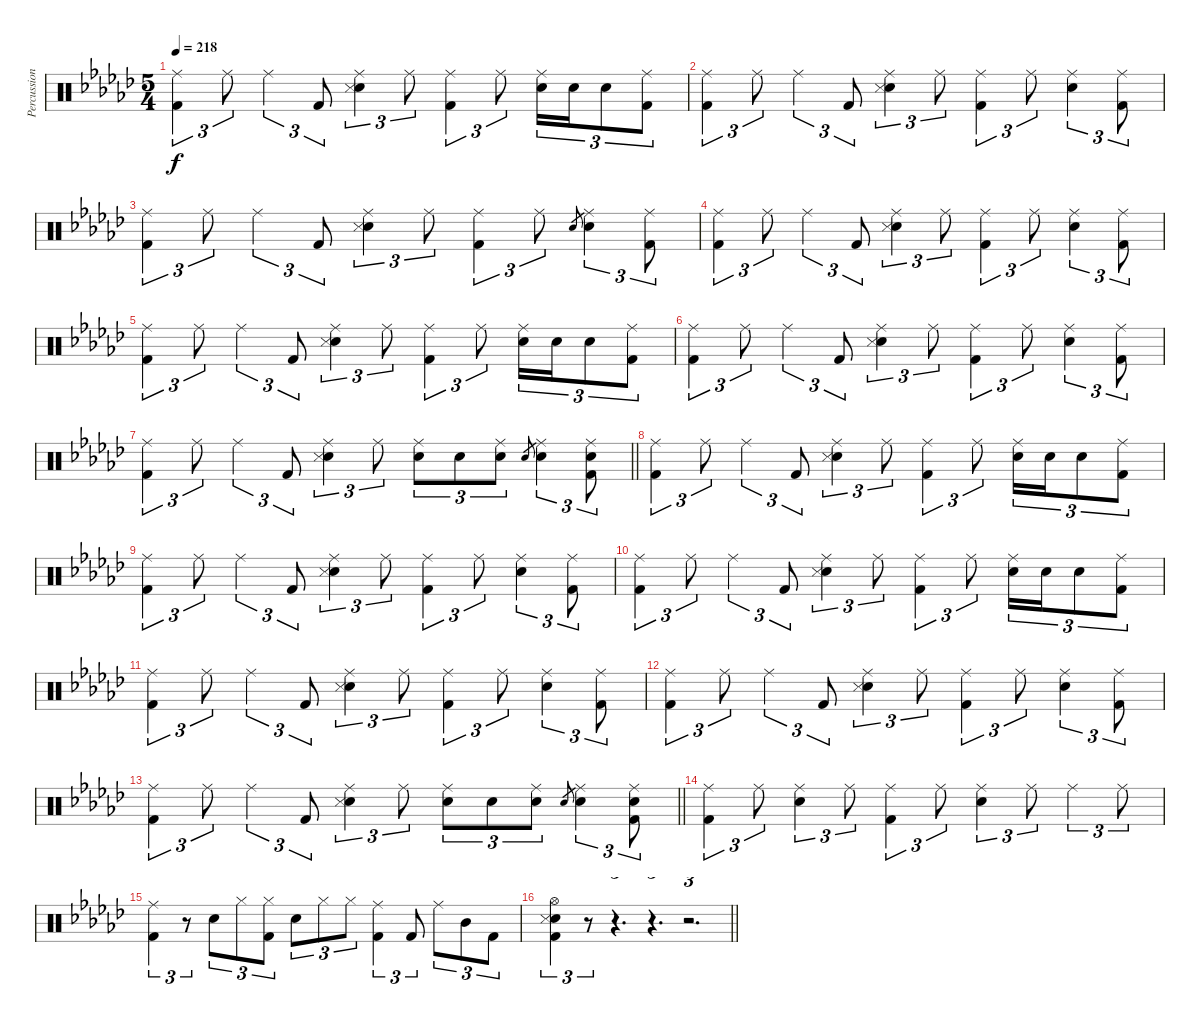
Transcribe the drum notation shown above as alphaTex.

\track ("Percussions" "Percussion") {instrument percussion}
\staff {score}
\articulation defaults
\ts (5 4)
\tempo 218
\clef neutral
\ks ebminor
("Ride (middle)" "Kick (hit) 2").4{tu (3 2) dy f} "Ride (middle)".8{tu (3 2)} "Ride (middle)".4{tu (3 2)} "Kick (hit) 2".8{tu (3 2)} ("Ride (middle)" "Snare (hit) 2" "Snare (side stick) 3").4{tu (3 2)} "Ride (middle)".8{tu (3 2)} ("Ride (middle)" "Kick (hit) 2").4{tu (3 2)} "Ride (middle)".8{tu (3 2)} ("Ride (middle)" "Snare (hit) 2").16{tu (3 2)} "Snare (hit) 2".16{tu (3 2)} "Snare (hit) 2".8{tu (3 2)} ("Ride (middle)" "Kick (hit) 2").8{tu (3 2)} |
("Ride (middle)" "Kick (hit) 2").4{tu (3 2)} "Ride (middle)".8{tu (3 2)} "Ride (middle)".4{tu (3 2)} "Kick (hit) 2".8{tu (3 2)} ("Ride (middle)" "Snare (hit) 2" "Snare (side stick) 3").4{tu (3 2)} "Ride (middle)".8{tu (3 2)} ("Ride (middle)" "Kick (hit) 2").4{tu (3 2)} "Ride (middle)".8{tu (3 2)} ("Ride (middle)" "Snare (hit) 2").4{tu (3 2)} ("Ride (middle)" "Kick (hit) 2").8{tu (3 2)} |
("Ride (middle)" "Kick (hit) 2").4{tu (3 2)} "Ride (middle)".8{tu (3 2)} "Ride (middle)".4{tu (3 2)} "Kick (hit) 2".8{tu (3 2)} ("Ride (middle)" "Snare (hit) 2" "Snare (side stick) 3").4{tu (3 2)} "Ride (middle)".8{tu (3 2)} ("Ride (middle)" "Kick (hit) 2").4{tu (3 2)} "Ride (middle)".8{tu (3 2)} "Snare (hit) 2".8{gr} ("Ride (middle)" "Snare (hit) 2").4{tu (3 2)} ("Ride (middle)" "Kick (hit) 2").8{tu (3 2)} |
("Ride (middle)" "Kick (hit) 2").4{tu (3 2)} "Ride (middle)".8{tu (3 2)} "Ride (middle)".4{tu (3 2)} "Kick (hit) 2".8{tu (3 2)} ("Ride (middle)" "Snare (hit) 2" "Snare (side stick) 3").4{tu (3 2)} "Ride (middle)".8{tu (3 2)} ("Ride (middle)" "Kick (hit) 2").4{tu (3 2)} "Ride (middle)".8{tu (3 2)} ("Ride (middle)" "Snare (hit) 2").4{tu (3 2)} ("Ride (middle)" "Kick (hit) 2").8{tu (3 2)} |
("Ride (middle)" "Kick (hit) 2").4{tu (3 2)} "Ride (middle)".8{tu (3 2)} "Ride (middle)".4{tu (3 2)} "Kick (hit) 2".8{tu (3 2)} ("Ride (middle)" "Snare (hit) 2" "Snare (side stick) 3").4{tu (3 2)} "Ride (middle)".8{tu (3 2)} ("Ride (middle)" "Kick (hit) 2").4{tu (3 2)} "Ride (middle)".8{tu (3 2)} ("Ride (middle)" "Snare (hit) 2").16{tu (3 2)} "Snare (hit) 2".16{tu (3 2)} "Snare (hit) 2".8{tu (3 2)} ("Ride (middle)" "Kick (hit) 2").8{tu (3 2)} |
("Ride (middle)" "Kick (hit) 2").4{tu (3 2)} "Ride (middle)".8{tu (3 2)} "Ride (middle)".4{tu (3 2)} "Kick (hit) 2".8{tu (3 2)} ("Ride (middle)" "Snare (hit) 2" "Snare (side stick) 3").4{tu (3 2)} "Ride (middle)".8{tu (3 2)} ("Ride (middle)" "Kick (hit) 2").4{tu (3 2)} "Ride (middle)".8{tu (3 2)} ("Ride (middle)" "Snare (hit) 2").4{tu (3 2)} ("Ride (middle)" "Kick (hit) 2").8{tu (3 2)} |
\barLineRight lightlight
("Ride (middle)" "Kick (hit) 2").4{tu (3 2)} "Ride (middle)".8{tu (3 2)} "Ride (middle)".4{tu (3 2)} "Kick (hit) 2".8{tu (3 2)} ("Ride (middle)" "Snare (hit) 2" "Snare (side stick) 3").4{tu (3 2)} "Ride (middle)".8{tu (3 2)} ("Ride (middle)" "Snare (hit) 2").8{tu (3 2)} "Snare (hit) 2".8{tu (3 2)} ("Ride (middle)" "Snare (hit) 2").8{tu (3 2)} "Snare (hit) 2".8{gr} ("Ride (middle)" "Snare (hit) 2").4{tu (3 2)} ("Ride (middle)" "Snare (hit) 2" "Kick (hit) 2").8{tu (3 2)} |
("Ride (middle)" "Kick (hit) 2").4{tu (3 2) volume 10 balance 8} "Ride (middle)".8{tu (3 2)} "Ride (middle)".4{tu (3 2)} "Kick (hit) 2".8{tu (3 2)} ("Ride (middle)" "Snare (hit) 2" "Snare (side stick) 3").4{tu (3 2)} "Ride (middle)".8{tu (3 2)} ("Ride (middle)" "Kick (hit) 2").4{tu (3 2)} "Ride (middle)".8{tu (3 2)} ("Ride (middle)" "Snare (hit) 2").16{tu (3 2)} "Snare (hit) 2".16{tu (3 2)} "Snare (hit) 2".8{tu (3 2)} ("Ride (middle)" "Kick (hit) 2").8{tu (3 2)} |
("Ride (middle)" "Kick (hit) 2").4{tu (3 2)} "Ride (middle)".8{tu (3 2)} "Ride (middle)".4{tu (3 2)} "Kick (hit) 2".8{tu (3 2)} ("Ride (middle)" "Snare (hit) 2" "Snare (side stick) 3").4{tu (3 2)} "Ride (middle)".8{tu (3 2)} ("Ride (middle)" "Kick (hit) 2").4{tu (3 2)} "Ride (middle)".8{tu (3 2)} ("Ride (middle)" "Snare (hit) 2").4{tu (3 2)} ("Ride (middle)" "Kick (hit) 2").8{tu (3 2)} |
("Ride (middle)" "Kick (hit) 2").4{tu (3 2)} "Ride (middle)".8{tu (3 2)} "Ride (middle)".4{tu (3 2)} "Kick (hit) 2".8{tu (3 2)} ("Ride (middle)" "Snare (hit) 2" "Snare (side stick) 3").4{tu (3 2)} "Ride (middle)".8{tu (3 2)} ("Ride (middle)" "Kick (hit) 2").4{tu (3 2)} "Ride (middle)".8{tu (3 2)} ("Ride (middle)" "Snare (hit) 2").16{tu (3 2)} "Snare (hit) 2".16{tu (3 2)} "Snare (hit) 2".8{tu (3 2)} ("Ride (middle)" "Kick (hit) 2").8{tu (3 2)} |
("Ride (middle)" "Kick (hit) 2").4{tu (3 2) volume 10 balance 8} "Ride (middle)".8{tu (3 2)} "Ride (middle)".4{tu (3 2)} "Kick (hit) 2".8{tu (3 2)} ("Ride (middle)" "Snare (hit) 2" "Snare (side stick) 3").4{tu (3 2)} "Ride (middle)".8{tu (3 2)} ("Ride (middle)" "Kick (hit) 2").4{tu (3 2)} "Ride (middle)".8{tu (3 2)} ("Ride (middle)" "Snare (hit) 2").4{tu (3 2)} ("Ride (middle)" "Kick (hit) 2").8{tu (3 2)} |
("Ride (middle)" "Kick (hit) 2").4{tu (3 2)} "Ride (middle)".8{tu (3 2)} "Ride (middle)".4{tu (3 2)} "Kick (hit) 2".8{tu (3 2)} ("Ride (middle)" "Snare (hit) 2" "Snare (side stick) 3").4{tu (3 2)} "Ride (middle)".8{tu (3 2)} ("Ride (middle)" "Kick (hit) 2").4{tu (3 2)} "Ride (middle)".8{tu (3 2)} ("Ride (middle)" "Snare (hit) 2").4{tu (3 2)} ("Ride (middle)" "Kick (hit) 2").8{tu (3 2)} |
\barLineRight lightlight
("Ride (middle)" "Kick (hit) 2").4{tu (3 2)} "Ride (middle)".8{tu (3 2)} "Ride (middle)".4{tu (3 2)} "Kick (hit) 2".8{tu (3 2)} ("Ride (middle)" "Snare (hit) 2" "Snare (side stick) 3").4{tu (3 2)} "Ride (middle)".8{tu (3 2)} ("Ride (middle)" "Snare (hit) 2").8{tu (3 2)} "Snare (hit) 2".8{tu (3 2)} ("Ride (middle)" "Snare (hit) 2").8{tu (3 2)} "Snare (hit) 2".8{gr} ("Ride (middle)" "Snare (hit) 2").4{tu (3 2)} ("Ride (middle)" "Snare (hit) 2" "Kick (hit) 2").8{tu (3 2)} |
("Ride (middle)" "Kick (hit) 2").4{tu (3 2)} "Ride (middle)".8{tu (3 2)} ("Ride (middle)" "Snare (hit) 2").4{tu (3 2)} "Ride (middle)".8{tu (3 2)} ("Ride (middle)" "Kick (hit) 2").4{tu (3 2)} "Ride (middle)".8{tu (3 2)} ("Ride (middle)" "Snare (hit) 2").4{tu (3 2)} "Ride (middle)".8{tu (3 2)} "Ride (middle)".4{tu (3 2)} "Ride (middle)".8{tu (3 2)} |
("Ride (middle)" "Kick (hit) 2").4{tu (3 2)} r.8{tu (3 2)} "Snare (hit) 2".8{tu (3 2)} "Hi-Hat (closed)".8{tu (3 2)} ("Hi-Hat (closed)" "Kick (hit) 2").8{tu (3 2)} "Snare (hit) 2".8{tu (3 2)} "Hi-Hat (closed)".8{tu (3 2)} "Hi-Hat (closed)".8{tu (3 2)} ("Ride (middle)" "Kick (hit) 2").4{tu (3 2)} "Kick (hit) 2".8{tu (3 2)} "Ride (middle)".8{tu (3 2)} "Mid Tom (hit)".8{tu (3 2)} "Kick (hit) 2".8{tu (3 2)} |
\barLineRight lightlight
("Hi-Hat (open)" "Snare (hit) 2" "Snare (side stick) 3" "Kick (hit) 2").4{tu (3 2) volume 12 balance 8} r.8{tu (3 2)} r.4{d tu (3 2)} r.4{d tu (3 2)} r.2{d tu (3 2)}
